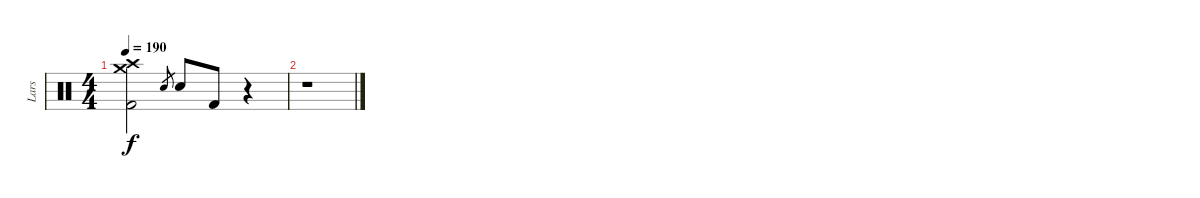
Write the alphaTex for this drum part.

\track ("Lars" "Lars") {instrument percussion}
\staff {score}
\articulation defaults
\ts (4 4)
\tempo 190
\clef neutral
\ks c
("Crash high (hit)" "Crash medium (hit)" "Kick (hit) 2").2{dy f} "Electric Snare (hit)".8{gr} "Electric Snare (hit)".8 "Kick (hit) 2".8 r.4 |
r.1
